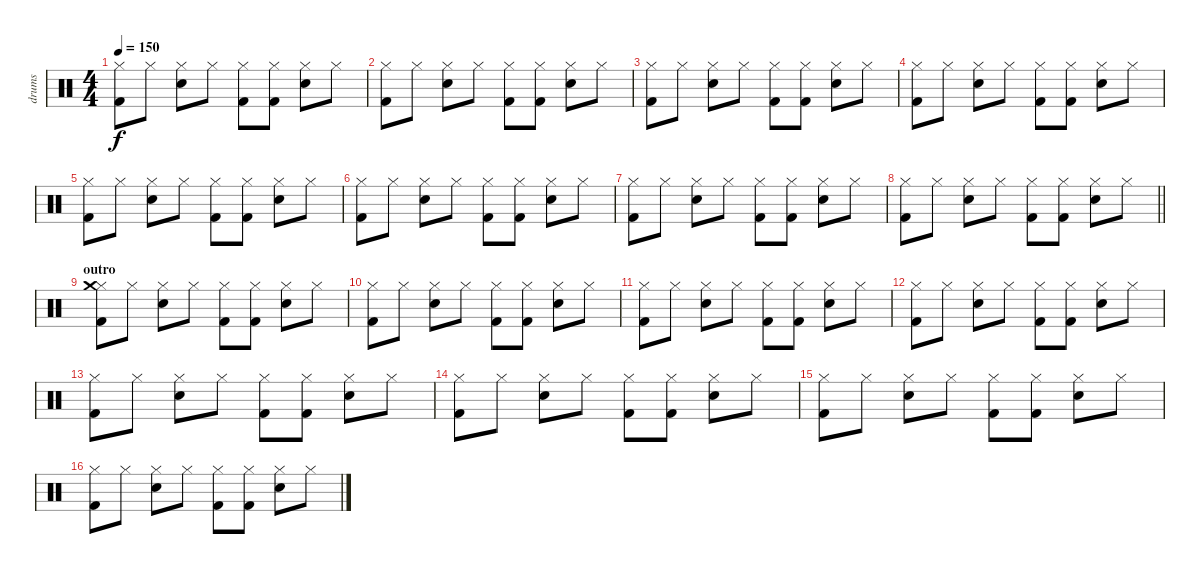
\track ("drums" "drums") {instrument percussion}
\staff {score}
\articulation defaults
\ts (4 4)
\tempo 150
\clef neutral
\ks c
("Kick (hit) 2" "Hi-Hat (closed)").8{dy f} "Hi-Hat (closed)".8 ("Snare (hit) 2" "Hi-Hat (closed)").8 "Hi-Hat (closed)".8 ("Kick (hit) 2" "Hi-Hat (closed)").8 ("Kick (hit) 2" "Hi-Hat (closed)").8 ("Snare (hit) 2" "Hi-Hat (closed)").8 "Hi-Hat (closed)".8 |
("Kick (hit) 2" "Hi-Hat (closed)").8 "Hi-Hat (closed)".8 ("Snare (hit) 2" "Hi-Hat (closed)").8 "Hi-Hat (closed)".8 ("Kick (hit) 2" "Hi-Hat (closed)").8 ("Kick (hit) 2" "Hi-Hat (closed)").8 ("Snare (hit) 2" "Hi-Hat (closed)").8 "Hi-Hat (closed)".8 |
("Kick (hit) 2" "Hi-Hat (closed)").8 "Hi-Hat (closed)".8 ("Snare (hit) 2" "Hi-Hat (closed)").8 "Hi-Hat (closed)".8 ("Kick (hit) 2" "Hi-Hat (closed)").8 ("Kick (hit) 2" "Hi-Hat (closed)").8 ("Snare (hit) 2" "Hi-Hat (closed)").8 "Hi-Hat (closed)".8 |
("Kick (hit) 2" "Hi-Hat (closed)").8 "Hi-Hat (closed)".8 ("Snare (hit) 2" "Hi-Hat (closed)").8 "Hi-Hat (closed)".8 ("Kick (hit) 2" "Hi-Hat (closed)").8 ("Kick (hit) 2" "Hi-Hat (closed)").8 ("Snare (hit) 2" "Hi-Hat (closed)").8 "Hi-Hat (closed)".8 |
("Kick (hit) 2" "Hi-Hat (closed)").8 "Hi-Hat (closed)".8 ("Snare (hit) 2" "Hi-Hat (closed)").8 "Hi-Hat (closed)".8 ("Kick (hit) 2" "Hi-Hat (closed)").8 ("Kick (hit) 2" "Hi-Hat (closed)").8 ("Snare (hit) 2" "Hi-Hat (closed)").8 "Hi-Hat (closed)".8 |
("Kick (hit) 2" "Hi-Hat (closed)").8 "Hi-Hat (closed)".8 ("Snare (hit) 2" "Hi-Hat (closed)").8 "Hi-Hat (closed)".8 ("Kick (hit) 2" "Hi-Hat (closed)").8 ("Kick (hit) 2" "Hi-Hat (closed)").8 ("Snare (hit) 2" "Hi-Hat (closed)").8 "Hi-Hat (closed)".8 |
("Kick (hit) 2" "Hi-Hat (closed)").8 "Hi-Hat (closed)".8 ("Snare (hit) 2" "Hi-Hat (closed)").8 "Hi-Hat (closed)".8 ("Kick (hit) 2" "Hi-Hat (closed)").8 ("Kick (hit) 2" "Hi-Hat (closed)").8 ("Snare (hit) 2" "Hi-Hat (closed)").8 "Hi-Hat (closed)".8 |
\barLineRight lightlight
("Kick (hit) 2" "Hi-Hat (closed)").8 "Hi-Hat (closed)".8 ("Snare (hit) 2" "Hi-Hat (closed)").8 "Hi-Hat (closed)".8 ("Kick (hit) 2" "Hi-Hat (closed)").8 ("Kick (hit) 2" "Hi-Hat (closed)").8 ("Snare (hit) 2" "Hi-Hat (closed)").8 "Hi-Hat (closed)".8 |
\section ("" "outro")
("Kick (hit) 2" "Hi-Hat (closed)" "Crash medium (hit)").8 "Hi-Hat (closed)".8 ("Snare (hit) 2" "Hi-Hat (closed)").8 "Hi-Hat (closed)".8 ("Kick (hit) 2" "Hi-Hat (closed)").8 ("Kick (hit) 2" "Hi-Hat (closed)").8 ("Snare (hit) 2" "Hi-Hat (closed)").8 "Hi-Hat (closed)".8 |
("Kick (hit) 2" "Hi-Hat (closed)").8 "Hi-Hat (closed)".8 ("Snare (hit) 2" "Hi-Hat (closed)").8 "Hi-Hat (closed)".8 ("Kick (hit) 2" "Hi-Hat (closed)").8 ("Kick (hit) 2" "Hi-Hat (closed)").8 ("Snare (hit) 2" "Hi-Hat (closed)").8 "Hi-Hat (closed)".8 |
("Kick (hit) 2" "Hi-Hat (closed)").8 "Hi-Hat (closed)".8 ("Snare (hit) 2" "Hi-Hat (closed)").8 "Hi-Hat (closed)".8 ("Kick (hit) 2" "Hi-Hat (closed)").8 ("Kick (hit) 2" "Hi-Hat (closed)").8 ("Snare (hit) 2" "Hi-Hat (closed)").8 "Hi-Hat (closed)".8 |
("Kick (hit) 2" "Hi-Hat (closed)").8 "Hi-Hat (closed)".8 ("Snare (hit) 2" "Hi-Hat (closed)").8 "Hi-Hat (closed)".8 ("Kick (hit) 2" "Hi-Hat (closed)").8 ("Kick (hit) 2" "Hi-Hat (closed)").8 ("Snare (hit) 2" "Hi-Hat (closed)").8 "Hi-Hat (closed)".8 |
("Kick (hit) 2" "Hi-Hat (closed)").8 "Hi-Hat (closed)".8 ("Snare (hit) 2" "Hi-Hat (closed)").8 "Hi-Hat (closed)".8 ("Kick (hit) 2" "Hi-Hat (closed)").8 ("Kick (hit) 2" "Hi-Hat (closed)").8 ("Snare (hit) 2" "Hi-Hat (closed)").8 "Hi-Hat (closed)".8 |
("Kick (hit) 2" "Hi-Hat (closed)").8 "Hi-Hat (closed)".8 ("Snare (hit) 2" "Hi-Hat (closed)").8 "Hi-Hat (closed)".8 ("Kick (hit) 2" "Hi-Hat (closed)").8 ("Kick (hit) 2" "Hi-Hat (closed)").8 ("Snare (hit) 2" "Hi-Hat (closed)").8 "Hi-Hat (closed)".8 |
("Kick (hit) 2" "Hi-Hat (closed)").8 "Hi-Hat (closed)".8 ("Snare (hit) 2" "Hi-Hat (closed)").8 "Hi-Hat (closed)".8 ("Kick (hit) 2" "Hi-Hat (closed)").8 ("Kick (hit) 2" "Hi-Hat (closed)").8 ("Snare (hit) 2" "Hi-Hat (closed)").8 "Hi-Hat (closed)".8 |
("Kick (hit) 2" "Hi-Hat (closed)").8 "Hi-Hat (closed)".8 ("Snare (hit) 2" "Hi-Hat (closed)").8 "Hi-Hat (closed)".8 ("Kick (hit) 2" "Hi-Hat (closed)").8 ("Kick (hit) 2" "Hi-Hat (closed)").8 ("Snare (hit) 2" "Hi-Hat (closed)").8 "Hi-Hat (closed)".8
